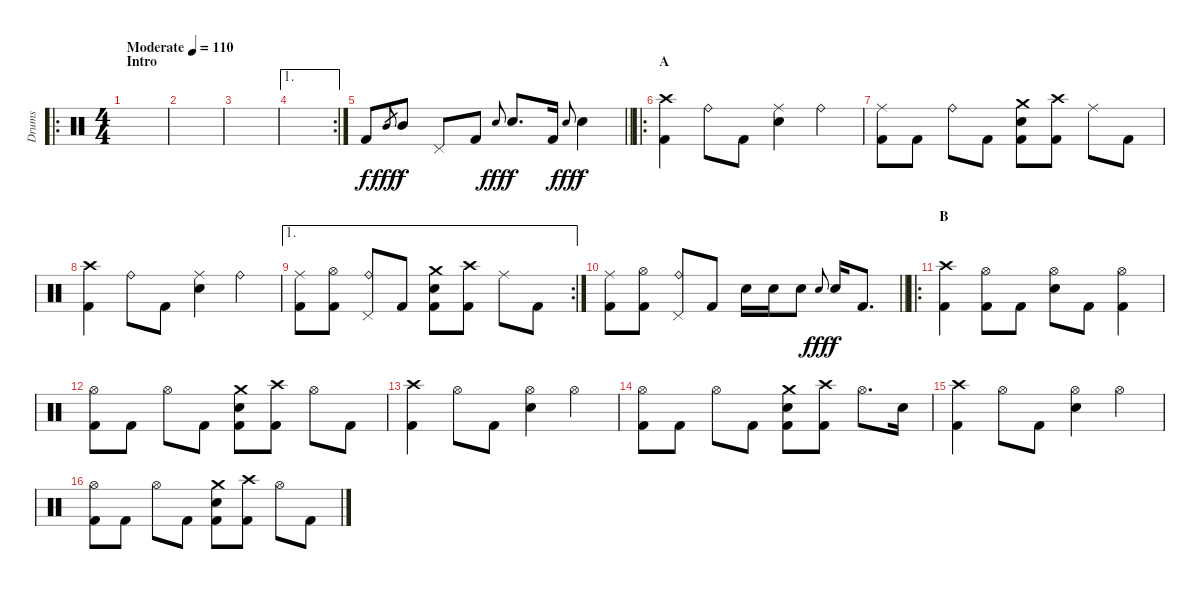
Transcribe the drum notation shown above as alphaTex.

\track ("Drums" "Drums") {instrument percussion}
\staff {score}
\articulation defaults
\ro
\ts (4 4)
\section ("" "Intro")
\tempo (110 "Moderate")
\clef neutral
\ks c
|
|
|
\ae 1
\rc 2
|
\barLineRight lightlight "Kick (hit) 2".8 "Mid Tom (hit)".8{gr dy fff} "Mid Tom (hit)".8{dy f} "Pedal Hi-Hat (hit)".8 "Kick (hit) 2".8 "Snare (hit) 2".8{gr onbeat dy fff} "Snare (hit) 2".8{d dy f} "Kick (hit) 2".16 "Snare (hit) 2".8{gr onbeat dy fff} "Snare (hit) 2".4{dy f}
|
\ro
\section ("" "A")
("Kick (hit) 2" "Crash high (hit)").4 "Ride (bell)".8 "Kick (hit) 2".8 ("Ride (middle)" "Snare (hit) 2").4 "Ride (bell)".4 |
("Ride (middle)" "Kick (hit) 2").8 "Kick (hit) 2".8 "Ride (bell)".8 "Kick (hit) 2".8 ("Snare (hit) 2" "Crash medium (hit)" "Kick (hit) 2").8 ("Crash high (hit)" "Kick (hit) 2").8 "Ride (middle)".8 "Kick (hit) 2".8 |
("Kick (hit) 2" "Crash high (hit)").4 "Ride (bell)".8 "Kick (hit) 2".8 ("Ride (middle)" "Snare (hit) 2").4 "Ride (bell)".4 |
\ae 1
\rc 2
("Ride (middle)" "Kick (hit) 2").8 ("Kick (hit) 2" "Hi-Hat (open)").8 ("Ride (bell)" "Pedal Hi-Hat (hit)").8 "Kick (hit) 2".8 ("Snare (hit) 2" "Crash medium (hit)" "Kick (hit) 2").8 ("Crash high (hit)" "Kick (hit) 2").8 "Ride (middle)".8 "Kick (hit) 2".8 |
\barLineRight lightlight
("Ride (middle)" "Kick (hit) 2").8 ("Kick (hit) 2" "Hi-Hat (open)").8 ("Ride (bell)" "Pedal Hi-Hat (hit)").8 "Kick (hit) 2".8 "Snare (hit) 2".16 "Snare (hit) 2".16 "Snare (hit) 2".8 "Snare (hit) 2".8{gr onbeat dy fff} "Snare (hit) 2".16{dy f} "Kick (hit) 2".8{d} |
\ro
\section ("" "B")
("Kick (hit) 2" "Crash high (hit)").4 ("Hi-Hat (open)" "Kick (hit) 2").8 "Kick (hit) 2".8 ("Hi-Hat (open)" "Snare (hit) 2").8 "Kick (hit) 2".8 ("Kick (hit) 2" "Hi-Hat (open)").4 |
("Hi-Hat (open)" "Kick (hit) 2").8 "Kick (hit) 2".8 "Hi-Hat (open)".8 "Kick (hit) 2".8 ("Snare (hit) 2" "Crash medium (hit)" "Kick (hit) 2").8 ("Crash high (hit)" "Kick (hit) 2").8 "Hi-Hat (open)".8 "Kick (hit) 2".8 |
("Kick (hit) 2" "Crash high (hit)").4 "Hi-Hat (open)".8 "Kick (hit) 2".8 ("Hi-Hat (open)" "Snare (hit) 2").4 "Hi-Hat (open)".4 |
("Hi-Hat (open)" "Kick (hit) 2").8 "Kick (hit) 2".8 "Hi-Hat (open)".8 "Kick (hit) 2".8 ("Snare (hit) 2" "Crash medium (hit)" "Kick (hit) 2").8 ("Crash high (hit)" "Kick (hit) 2").8 "Hi-Hat (open)".8{d} "Snare (hit) 2".16 |
("Kick (hit) 2" "Crash high (hit)").4 "Hi-Hat (open)".8 "Kick (hit) 2".8 ("Hi-Hat (open)" "Snare (hit) 2").4 "Hi-Hat (open)".4 |
("Hi-Hat (open)" "Kick (hit) 2").8 "Kick (hit) 2".8 "Hi-Hat (open)".8 "Kick (hit) 2".8 ("Snare (hit) 2" "Crash medium (hit)" "Kick (hit) 2").8 ("Crash high (hit)" "Kick (hit) 2").8 "Hi-Hat (open)".8 "Kick (hit) 2".8
